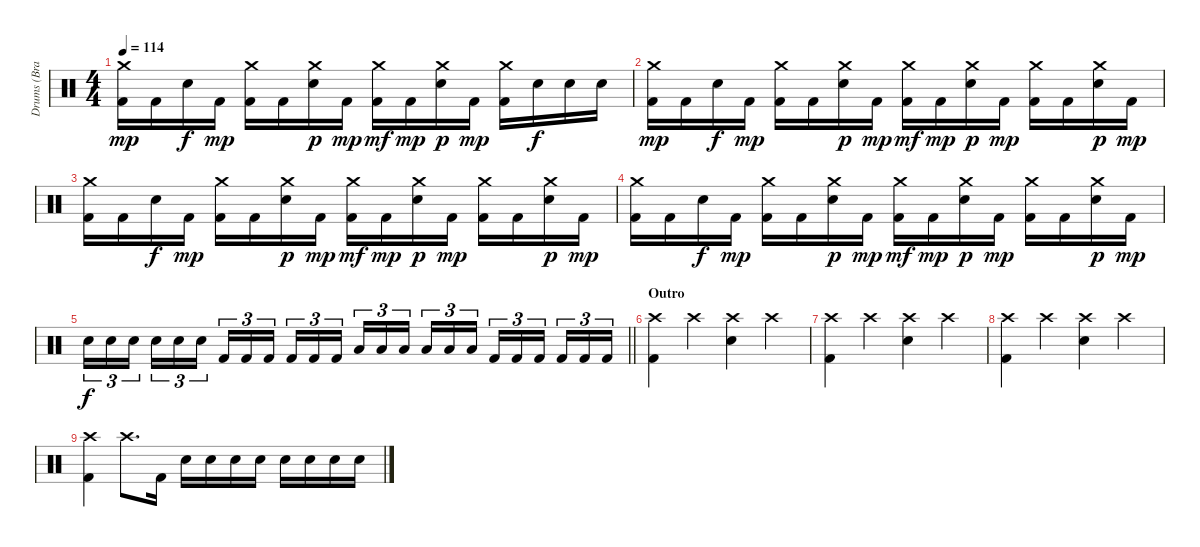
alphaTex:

\track ("Drums (Brandon Saller)" "Drums (Bra") {instrument percussion}
\staff {score}
\articulation defaults
\ts (4 4)
\tempo 114
\clef neutral
\ks c
("Crash medium (hit)" "Kick (hit) 2").16{dy mp} "Kick (hit) 2".16 "Electric Snare (hit)".16{dy f} "Kick (hit) 2".16{dy mp} ("Crash medium (hit)" "Kick (hit) 2").16 "Kick (hit) 2".16 ("Crash medium (hit)" "Electric Snare (hit)").16{dy p} "Kick (hit) 2".16{dy mp} ("Crash medium (hit)" "Kick (hit) 2").16{dy mf} "Kick (hit) 2".16{dy mp} ("Crash medium (hit)" "Electric Snare (hit)").16{dy p} "Kick (hit) 2".16{dy mp} ("Crash medium (hit)" "Kick (hit) 2").16 "Electric Snare (hit)".16{dy f} "Electric Snare (hit)".16 "Electric Snare (hit)".16 |
("Crash medium (hit)" "Kick (hit) 2").16{dy mp} "Kick (hit) 2".16 "Electric Snare (hit)".16{dy f} "Kick (hit) 2".16{dy mp} ("Crash medium (hit)" "Kick (hit) 2").16 "Kick (hit) 2".16 ("Crash medium (hit)" "Electric Snare (hit)").16{dy p} "Kick (hit) 2".16{dy mp} ("Crash medium (hit)" "Kick (hit) 2").16{dy mf} "Kick (hit) 2".16{dy mp} ("Crash medium (hit)" "Electric Snare (hit)").16{dy p} "Kick (hit) 2".16{dy mp} ("Crash medium (hit)" "Kick (hit) 2").16 "Kick (hit) 2".16 ("Crash medium (hit)" "Electric Snare (hit)").16{dy p} "Kick (hit) 2".16{dy mp} |
("Crash medium (hit)" "Kick (hit) 2").16 "Kick (hit) 2".16 "Electric Snare (hit)".16{dy f} "Kick (hit) 2".16{dy mp} ("Crash medium (hit)" "Kick (hit) 2").16 "Kick (hit) 2".16 ("Crash medium (hit)" "Electric Snare (hit)").16{dy p} "Kick (hit) 2".16{dy mp} ("Crash medium (hit)" "Kick (hit) 2").16{dy mf} "Kick (hit) 2".16{dy mp} ("Crash medium (hit)" "Electric Snare (hit)").16{dy p} "Kick (hit) 2".16{dy mp} ("Crash medium (hit)" "Kick (hit) 2").16 "Kick (hit) 2".16 ("Crash medium (hit)" "Electric Snare (hit)").16{dy p} "Kick (hit) 2".16{dy mp} |
("Crash medium (hit)" "Kick (hit) 2").16 "Kick (hit) 2".16 "Electric Snare (hit)".16{dy f} "Kick (hit) 2".16{dy mp} ("Crash medium (hit)" "Kick (hit) 2").16 "Kick (hit) 2".16 ("Crash medium (hit)" "Electric Snare (hit)").16{dy p} "Kick (hit) 2".16{dy mp} ("Crash medium (hit)" "Kick (hit) 2").16{dy mf} "Kick (hit) 2".16{dy mp} ("Crash medium (hit)" "Electric Snare (hit)").16{dy p} "Kick (hit) 2".16{dy mp} ("Crash medium (hit)" "Kick (hit) 2").16 "Kick (hit) 2".16 ("Crash medium (hit)" "Electric Snare (hit)").16{dy p} "Kick (hit) 2".16{dy mp} |
\barLineRight lightlight "Electric Snare (hit)".16{tu (3 2) dy f} "Electric Snare (hit)".16{tu (3 2)} "Electric Snare (hit)".16{tu (3 2) beam splitsecondary} "Electric Snare (hit)".16{tu (3 2)} "Electric Snare (hit)".16{tu (3 2)} "Electric Snare (hit)".16{tu (3 2)} "Kick (hit) 2".16{tu (3 2)} "Kick (hit) 2".16{tu (3 2)} "Kick (hit) 2".16{tu (3 2) beam splitsecondary} "Kick (hit) 2".16{tu (3 2)} "Kick (hit) 2".16{tu (3 2)} "Kick (hit) 2".16{tu (3 2)} "Low Tom (hit)".16{tu (3 2)} "Low Tom (hit)".16{tu (3 2)} "Low Tom (hit)".16{tu (3 2) beam splitsecondary} "Low Tom (hit)".16{tu (3 2)} "Low Tom (hit)".16{tu (3 2)} "Low Tom (hit)".16{tu (3 2)} "Kick (hit) 2".16{tu (3 2)} "Kick (hit) 2".16{tu (3 2)} "Kick (hit) 2".16{tu (3 2) beam splitsecondary} "Kick (hit) 2".16{tu (3 2)} "Kick (hit) 2".16{tu (3 2)} "Kick (hit) 2".16{tu (3 2)}
|
\section ("" "Outro")
("Crash high (hit)" "Kick (hit) 2").4 "Crash high (hit)".4 ("Crash high (hit)" "Electric Snare (hit)").4 "Crash high (hit)".4 |
("Crash high (hit)" "Kick (hit) 2").4 "Crash high (hit)".4 ("Crash high (hit)" "Electric Snare (hit)").4 "Crash high (hit)".4 |
("Crash high (hit)" "Kick (hit) 2").4 "Crash high (hit)".4 ("Crash high (hit)" "Electric Snare (hit)").4 "Crash high (hit)".4 |
("Crash high (hit)" "Kick (hit) 2").4 "Crash high (hit)".8{d} "Kick (hit) 2".16 "Electric Snare (hit)".16 "Electric Snare (hit)".16 "Electric Snare (hit)".16 "Electric Snare (hit)".16 "Electric Snare (hit)".16 "Electric Snare (hit)".16 "Electric Snare (hit)".16 "Electric Snare (hit)".16
